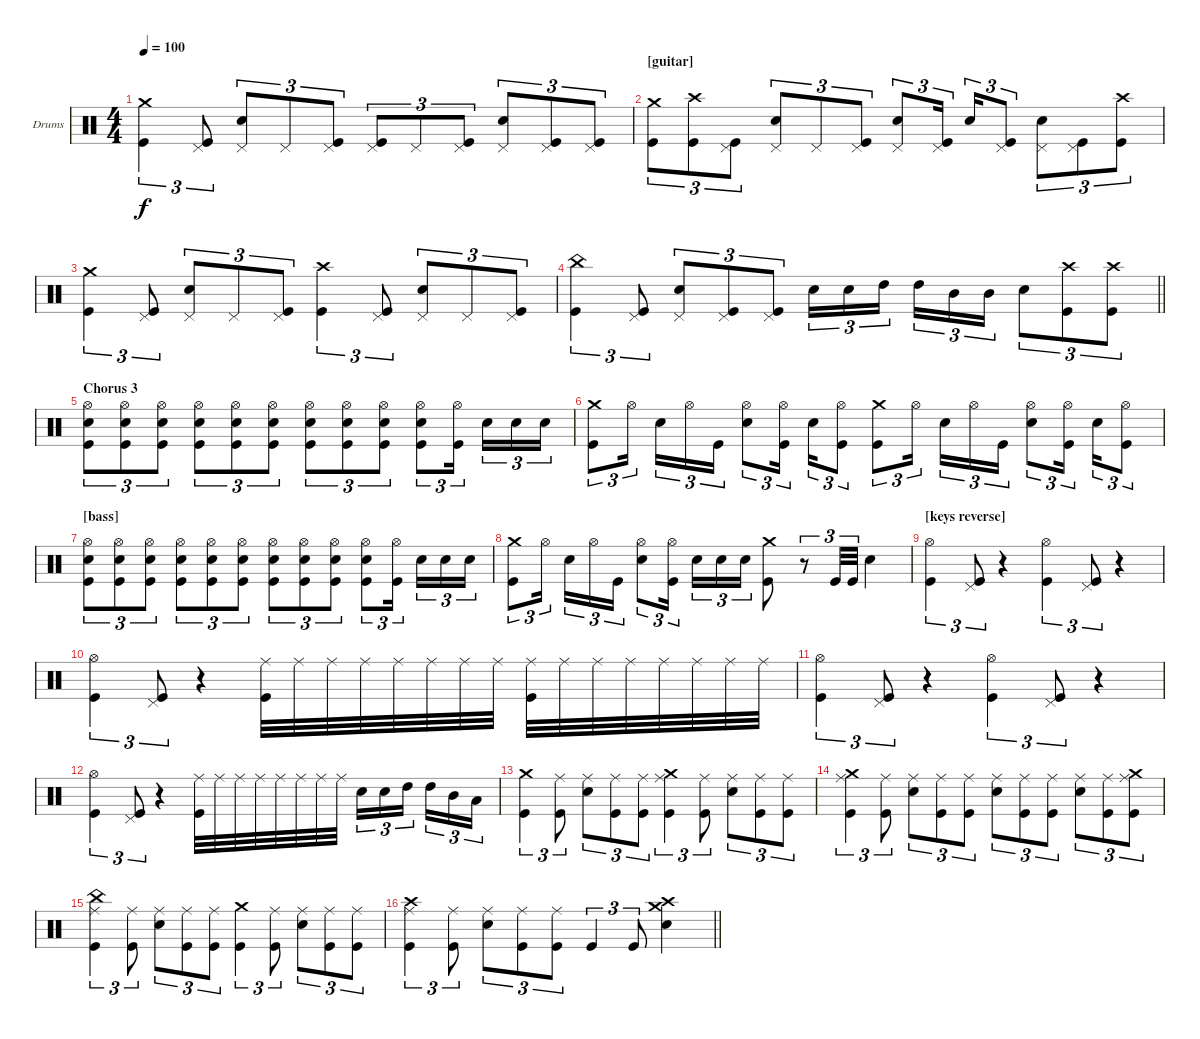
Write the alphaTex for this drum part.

\bracketExtendMode groupsimilarinstruments
\firstSystemTrackNameOrientation horizontal
\otherSystemsTrackNameOrientation horizontal
\track ("drums (Anton Zulganov)" "Drums") {instrument percussion}
\staff {score}
\articulation defaults
\ts (4 4)
\tempo 100
\clef neutral
\ks aminor
("Kick (hit)" "Crash medium (hit)").4{tu (3 2) dy f} ("Kick (hit)" "Pedal Hi-Hat (hit)").8{tu (3 2)} ("Snare (hit) 2" "Pedal Hi-Hat (hit)").8{tu (3 2)} "Pedal Hi-Hat (hit)".8{tu (3 2)} ("Kick (hit)" "Pedal Hi-Hat (hit)").8{tu (3 2)} ("Kick (hit)" "Pedal Hi-Hat (hit)").8{tu (3 2)} "Pedal Hi-Hat (hit)".8{tu (3 2)} ("Kick (hit)" "Pedal Hi-Hat (hit)").8{tu (3 2)} ("Snare (hit) 2" "Pedal Hi-Hat (hit)").8{tu (3 2)} ("Kick (hit)" "Pedal Hi-Hat (hit)").8{tu (3 2)} ("Kick (hit)" "Pedal Hi-Hat (hit)").8{tu (3 2)} |
\section ("" "[guitar]")
("Kick (hit)" "Crash medium (hit)").8{tu (3 2)} ("Kick (hit)" "Crash high (hit)").8{tu (3 2)} ("Kick (hit)" "Pedal Hi-Hat (hit)").8{tu (3 2)} ("Snare (hit) 2" "Pedal Hi-Hat (hit)").8{tu (3 2)} "Pedal Hi-Hat (hit)".8{tu (3 2)} ("Kick (hit)" "Pedal Hi-Hat (hit)").8{tu (3 2)} ("Snare (hit) 2" "Pedal Hi-Hat (hit)").8{tu (3 2)} ("Pedal Hi-Hat (hit)" "Kick (hit)").16{tu (3 2)} "Snare (hit) 2".16{tu (3 2)} ("Pedal Hi-Hat (hit)" "Kick (hit)").8{tu (3 2)} ("Snare (hit) 2" "Pedal Hi-Hat (hit)").8{tu (3 2)} ("Kick (hit)" "Pedal Hi-Hat (hit)").8{tu (3 2)} ("Kick (hit)" "Crash high (hit)").8{tu (3 2)} |
("Kick (hit)" "Crash medium (hit)").4{tu (3 2)} ("Kick (hit)" "Pedal Hi-Hat (hit)").8{tu (3 2)} ("Snare (hit) 2" "Pedal Hi-Hat (hit)").8{tu (3 2)} "Pedal Hi-Hat (hit)".8{tu (3 2)} ("Kick (hit)" "Pedal Hi-Hat (hit)").8{tu (3 2)} ("Kick (hit)" "Crash high (hit)").4{tu (3 2)} ("Kick (hit)" "Pedal Hi-Hat (hit)").8{tu (3 2)} ("Snare (hit) 2" "Pedal Hi-Hat (hit)").8{tu (3 2)} "Pedal Hi-Hat (hit)".8{tu (3 2)} ("Kick (hit)" "Pedal Hi-Hat (hit)").8{tu (3 2)} |
\barLineRight lightlight
("Kick (hit)" "China (hit)").4{tu (3 2)} ("Kick (hit)" "Pedal Hi-Hat (hit)").8{tu (3 2)} ("Snare (hit) 2" "Pedal Hi-Hat (hit)").8{tu (3 2)} ("Pedal Hi-Hat (hit)" "Kick (hit)").8{tu (3 2)} ("Kick (hit)" "Pedal Hi-Hat (hit)").8{tu (3 2)} "Snare (hit) 2".16{tu (3 2)} "Snare (hit) 2".16{tu (3 2)} "High Tom (hit)".16{tu (3 2)} "High Tom (hit)".16{tu (3 2)} "Mid Tom (hit)".16{tu (3 2)} "Mid Tom (hit)".16{tu (3 2)} "Snare (hit) 2".8{tu (3 2)} ("Kick (hit)" "Crash high (hit)").8{tu (3 2)} ("Kick (hit)" "Crash high (hit)").8{tu (3 2)} |
\section ("" "Chorus 3")
("Kick (hit)" "Snare (hit) 2" "Hi-Hat (open)").8{tu (3 2)} ("Kick (hit)" "Snare (hit) 2" "Hi-Hat (open)").8{tu (3 2)} ("Kick (hit)" "Snare (hit) 2" "Hi-Hat (open)").8{tu (3 2)} ("Kick (hit)" "Snare (hit) 2" "Hi-Hat (open)").8{tu (3 2)} ("Kick (hit)" "Snare (hit) 2" "Hi-Hat (open)").8{tu (3 2)} ("Kick (hit)" "Snare (hit) 2" "Hi-Hat (open)").8{tu (3 2)} ("Kick (hit)" "Snare (hit) 2" "Hi-Hat (open)").8{tu (3 2)} ("Kick (hit)" "Snare (hit) 2" "Hi-Hat (open)").8{tu (3 2)} ("Kick (hit)" "Snare (hit) 2" "Hi-Hat (open)").8{tu (3 2)} ("Kick (hit)" "Snare (hit) 2" "Hi-Hat (open)").8{tu (3 2)} ("Kick (hit)" "Hi-Hat (open)").16{tu (3 2)} "Snare (hit) 2".16{tu (3 2)} "Snare (hit) 2".16{tu (3 2)} "Snare (hit) 2".16{tu (3 2)} |
("Kick (hit)" "Crash medium (hit)").8{tu (3 2)} "Hi-Hat (open)".16{tu (3 2)} "Snare (hit) 2".16{tu (3 2)} "Hi-Hat (open)".16{tu (3 2)} "Kick (hit)".16{tu (3 2)} ("Snare (hit) 2" "Hi-Hat (open)").8{tu (3 2)} ("Kick (hit)" "Hi-Hat (open)").16{tu (3 2)} "Snare (hit) 2".16{tu (3 2)} ("Kick (hit)" "Hi-Hat (open)").8{tu (3 2)} ("Kick (hit)" "Crash medium (hit)").8{tu (3 2)} "Hi-Hat (open)".16{tu (3 2)} "Snare (hit) 2".16{tu (3 2)} "Hi-Hat (open)".16{tu (3 2)} "Kick (hit)".16{tu (3 2)} ("Snare (hit) 2" "Hi-Hat (open)").8{tu (3 2)} ("Kick (hit)" "Hi-Hat (open)").16{tu (3 2)} "Snare (hit) 2".16{tu (3 2)} ("Kick (hit)" "Hi-Hat (open)").8{tu (3 2)} |
\section ("" "[bass]")
("Kick (hit)" "Snare (hit) 2" "Hi-Hat (open)").8{tu (3 2)} ("Kick (hit)" "Snare (hit) 2" "Hi-Hat (open)").8{tu (3 2)} ("Kick (hit)" "Snare (hit) 2" "Hi-Hat (open)").8{tu (3 2)} ("Kick (hit)" "Snare (hit) 2" "Hi-Hat (open)").8{tu (3 2)} ("Kick (hit)" "Snare (hit) 2" "Hi-Hat (open)").8{tu (3 2)} ("Kick (hit)" "Snare (hit) 2" "Hi-Hat (open)").8{tu (3 2)} ("Kick (hit)" "Snare (hit) 2" "Hi-Hat (open)").8{tu (3 2)} ("Kick (hit)" "Snare (hit) 2" "Hi-Hat (open)").8{tu (3 2)} ("Kick (hit)" "Snare (hit) 2" "Hi-Hat (open)").8{tu (3 2)} ("Kick (hit)" "Snare (hit) 2" "Hi-Hat (open)").8{tu (3 2)} ("Kick (hit)" "Hi-Hat (open)").16{tu (3 2)} "Snare (hit) 2".16{tu (3 2)} "Snare (hit) 2".16{tu (3 2)} "Snare (hit) 2".16{tu (3 2)} |
("Kick (hit)" "Crash medium (hit)").8{tu (3 2)} "Hi-Hat (open)".16{tu (3 2)} "Snare (hit) 2".16{tu (3 2)} "Hi-Hat (open)".16{tu (3 2)} "Kick (hit)".16{tu (3 2)} ("Snare (hit) 2" "Hi-Hat (open)").8{tu (3 2)} ("Kick (hit)" "Hi-Hat (open)").16{tu (3 2)} "Snare (hit) 2".16{tu (3 2)} "Snare (hit) 2".16{tu (3 2)} "Snare (hit) 2".16{tu (3 2)} ("Crash medium (hit)" "Kick (hit)").8 r.8{tu (3 2)} "Kick (hit)".32{tu (3 2)} "Kick (hit)".32{tu (3 2)} "Snare (hit) 2".4 |
\section ("" "[keys reverse]")
("Kick (hit)" "Hi-Hat (open)").4{tu (3 2)} ("Kick (hit)" "Pedal Hi-Hat (hit)").8{tu (3 2)} r.4 ("Kick (hit)" "Hi-Hat (open)").4{tu (3 2)} ("Kick (hit)" "Pedal Hi-Hat (hit)").8{tu (3 2)} r.4 |
("Kick (hit)" "Hi-Hat (open)").4{tu (3 2)} ("Kick (hit)" "Pedal Hi-Hat (hit)").8{tu (3 2)} r.4 ("Kick (hit)" "Ride (middle)").32 "Ride (middle)".32 "Ride (middle)".32 "Ride (middle)".32 "Ride (middle)".32 "Ride (middle)".32 "Ride (middle)".32 "Ride (middle)".32 ("Kick (hit)" "Ride (middle)").32 "Ride (middle)".32 "Ride (middle)".32 "Ride (middle)".32 "Ride (middle)".32 "Ride (middle)".32 "Ride (middle)".32 "Ride (middle)".32 |
("Kick (hit)" "Hi-Hat (open)").4{tu (3 2)} ("Kick (hit)" "Pedal Hi-Hat (hit)").8{tu (3 2)} r.4 ("Kick (hit)" "Hi-Hat (open)").4{tu (3 2)} ("Kick (hit)" "Pedal Hi-Hat (hit)").8{tu (3 2)} r.4 |
("Kick (hit)" "Hi-Hat (open)").4{tu (3 2)} ("Kick (hit)" "Pedal Hi-Hat (hit)").8{tu (3 2)} r.4 ("Kick (hit)" "Ride (middle)").32 "Ride (middle)".32 "Ride (middle)".32 "Ride (middle)".32 "Ride (middle)".32 "Ride (middle)".32 "Ride (middle)".32 "Ride (middle)".32 "Snare (hit) 2".16{tu (3 2)} "Snare (hit) 2".16{tu (3 2)} "High Tom (hit)".16{tu (3 2)} "High Tom (hit)".16{tu (3 2)} "Mid Tom (hit)".16{tu (3 2)} "Low Tom (hit)".16{tu (3 2)} |
("Kick (hit)" "Crash medium (hit)").4{tu (3 2)} ("Kick (hit)" "Ride (middle)").8{tu (3 2)} ("Snare (hit) 2" "Ride (middle)").8{tu (3 2)} ("Kick (hit)" "Ride (middle)").8{tu (3 2)} ("Kick (hit)" "Ride (middle)").8{tu (3 2)} ("Kick (hit)" "Ride (middle)" "Crash medium (hit)").4{tu (3 2)} ("Kick (hit)" "Ride (middle)").8{tu (3 2)} ("Snare (hit) 2" "Ride (middle)").8{tu (3 2)} ("Kick (hit)" "Ride (middle)").8{tu (3 2)} ("Kick (hit)" "Ride (middle)").8{tu (3 2)} |
("Kick (hit)" "Crash medium (hit)" "Ride (middle)").4{tu (3 2)} ("Kick (hit)" "Ride (middle)").8{tu (3 2)} ("Snare (hit) 2" "Ride (middle)").8{tu (3 2)} ("Kick (hit)" "Ride (middle)").8{tu (3 2)} ("Kick (hit)" "Ride (middle)").8{tu (3 2)} ("Snare (hit) 2" "Ride (middle)").8{tu (3 2)} ("Kick (hit)" "Ride (middle)").8{tu (3 2)} ("Kick (hit)" "Ride (middle)").8{tu (3 2)} ("Snare (hit) 2" "Ride (middle)").8{tu (3 2)} ("Kick (hit)" "Ride (middle)").8{tu (3 2)} ("Kick (hit)" "Ride (middle)" "Crash medium (hit)").8{tu (3 2)} |
("Kick (hit)" "Ride (middle)" "China (hit)").4{tu (3 2)} ("Kick (hit)" "Ride (middle)").8{tu (3 2)} ("Snare (hit) 2" "Ride (middle)").8{tu (3 2)} ("Kick (hit)" "Ride (middle)").8{tu (3 2)} ("Kick (hit)" "Ride (middle)").8{tu (3 2)} ("Kick (hit)" "Crash medium (hit)").4{tu (3 2)} ("Kick (hit)" "Ride (middle)").8{tu (3 2)} ("Snare (hit) 2" "Ride (middle)").8{tu (3 2)} ("Kick (hit)" "Ride (middle)").8{tu (3 2)} ("Kick (hit)" "Ride (middle)").8{tu (3 2)} |
\barLineRight lightlight
("Kick (hit)" "Crash high (hit)" "Ride (middle)").4{tu (3 2)} ("Kick (hit)" "Ride (middle)").8{tu (3 2)} ("Snare (hit) 2" "Ride (middle)").8{tu (3 2)} ("Kick (hit)" "Ride (middle)").8{tu (3 2)} ("Kick (hit)" "Ride (middle)").8{tu (3 2)} "Kick (hit)".4{tu (3 2)} "Kick (hit)".8{tu (3 2)} ("Snare (hit) 2" "Crash medium (hit)" "Crash high (hit)").4
